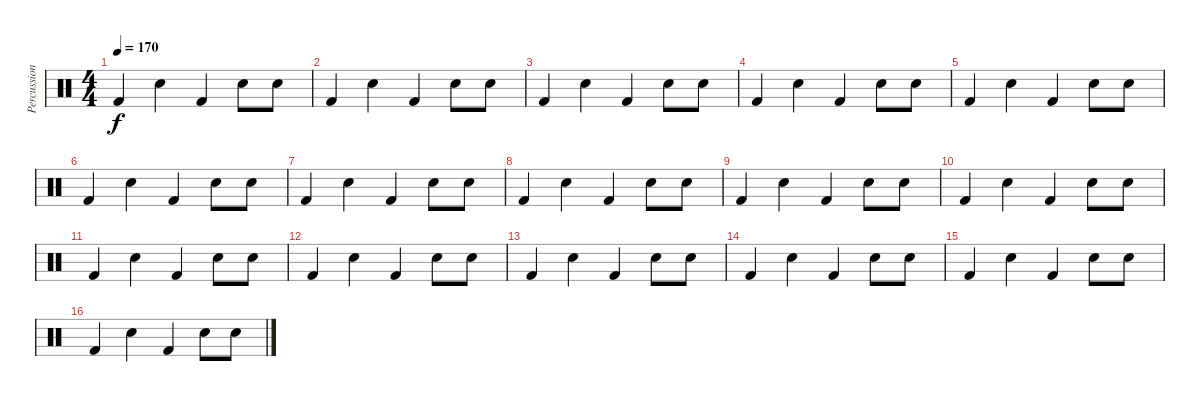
\track ("Percussions" "Percussion") {instrument percussion}
\staff {score}
\articulation defaults
\ts (4 4)
\tempo 170
\clef neutral
\ks c "Kick (hit) 2".4{dy f} "Electric Snare (hit)".4 "Kick (hit) 2".4 "Electric Snare (hit)".8 "Electric Snare (hit)".8
|
"Kick (hit) 2".4 "Electric Snare (hit)".4 "Kick (hit) 2".4 "Electric Snare (hit)".8 "Electric Snare (hit)".8 |
"Kick (hit) 2".4 "Electric Snare (hit)".4 "Kick (hit) 2".4 "Electric Snare (hit)".8 "Electric Snare (hit)".8 |
"Kick (hit) 2".4 "Electric Snare (hit)".4 "Kick (hit) 2".4 "Electric Snare (hit)".8 "Electric Snare (hit)".8 |
"Kick (hit) 2".4 "Electric Snare (hit)".4 "Kick (hit) 2".4 "Electric Snare (hit)".8 "Electric Snare (hit)".8 |
"Kick (hit) 2".4 "Electric Snare (hit)".4 "Kick (hit) 2".4 "Electric Snare (hit)".8 "Electric Snare (hit)".8 |
"Kick (hit) 2".4 "Electric Snare (hit)".4 "Kick (hit) 2".4 "Electric Snare (hit)".8 "Electric Snare (hit)".8 |
"Kick (hit) 2".4 "Electric Snare (hit)".4 "Kick (hit) 2".4 "Electric Snare (hit)".8 "Electric Snare (hit)".8 |
"Kick (hit) 2".4 "Electric Snare (hit)".4 "Kick (hit) 2".4 "Electric Snare (hit)".8 "Electric Snare (hit)".8 |
"Kick (hit) 2".4 "Electric Snare (hit)".4 "Kick (hit) 2".4 "Electric Snare (hit)".8 "Electric Snare (hit)".8 |
"Kick (hit) 2".4 "Electric Snare (hit)".4 "Kick (hit) 2".4 "Electric Snare (hit)".8 "Electric Snare (hit)".8 |
"Kick (hit) 2".4 "Electric Snare (hit)".4 "Kick (hit) 2".4 "Electric Snare (hit)".8 "Electric Snare (hit)".8 |
"Kick (hit) 2".4 "Electric Snare (hit)".4 "Kick (hit) 2".4 "Electric Snare (hit)".8 "Electric Snare (hit)".8 |
"Kick (hit) 2".4 "Electric Snare (hit)".4 "Kick (hit) 2".4 "Electric Snare (hit)".8 "Electric Snare (hit)".8 |
"Kick (hit) 2".4 "Electric Snare (hit)".4 "Kick (hit) 2".4 "Electric Snare (hit)".8 "Electric Snare (hit)".8 |
"Kick (hit) 2".4 "Electric Snare (hit)".4 "Kick (hit) 2".4 "Electric Snare (hit)".8 "Electric Snare (hit)".8
